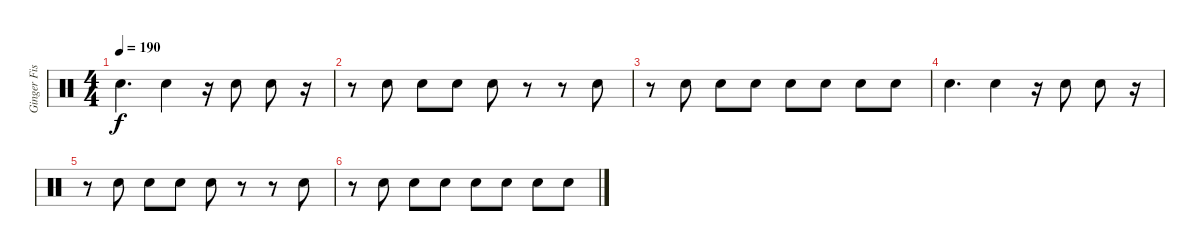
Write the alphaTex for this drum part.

\track ("Ginger Fish" "Ginger Fis") {instrument percussion}
\staff {score}
\articulation defaults
\ts (4 4)
\tempo 190
\clef neutral
\ks c "Electric Snare (hit)".4{d dy f} "Electric Snare (hit)".4
r.16 "Electric Snare (hit)".8 "Electric Snare (hit)".8 r.16 |
r.8 "Electric Snare (hit)".8 "Electric Snare (hit)".8 "Electric Snare (hit)".8 "Electric Snare (hit)".8 r.8 r.8 "Electric Snare (hit)".8 |
r.8 "Electric Snare (hit)".8 "Electric Snare (hit)".8 "Electric Snare (hit)".8 "Electric Snare (hit)".8 "Electric Snare (hit)".8 "Electric Snare (hit)".8 "Electric Snare (hit)".8 |
"Electric Snare (hit)".4{d} "Electric Snare (hit)".4 r.16 "Electric Snare (hit)".8 "Electric Snare (hit)".8 r.16 |
r.8 "Electric Snare (hit)".8 "Electric Snare (hit)".8 "Electric Snare (hit)".8 "Electric Snare (hit)".8 r.8 r.8 "Electric Snare (hit)".8 |
r.8 "Electric Snare (hit)".8 "Electric Snare (hit)".8 "Electric Snare (hit)".8 "Electric Snare (hit)".8 "Electric Snare (hit)".8 "Electric Snare (hit)".8 "Electric Snare (hit)".8
